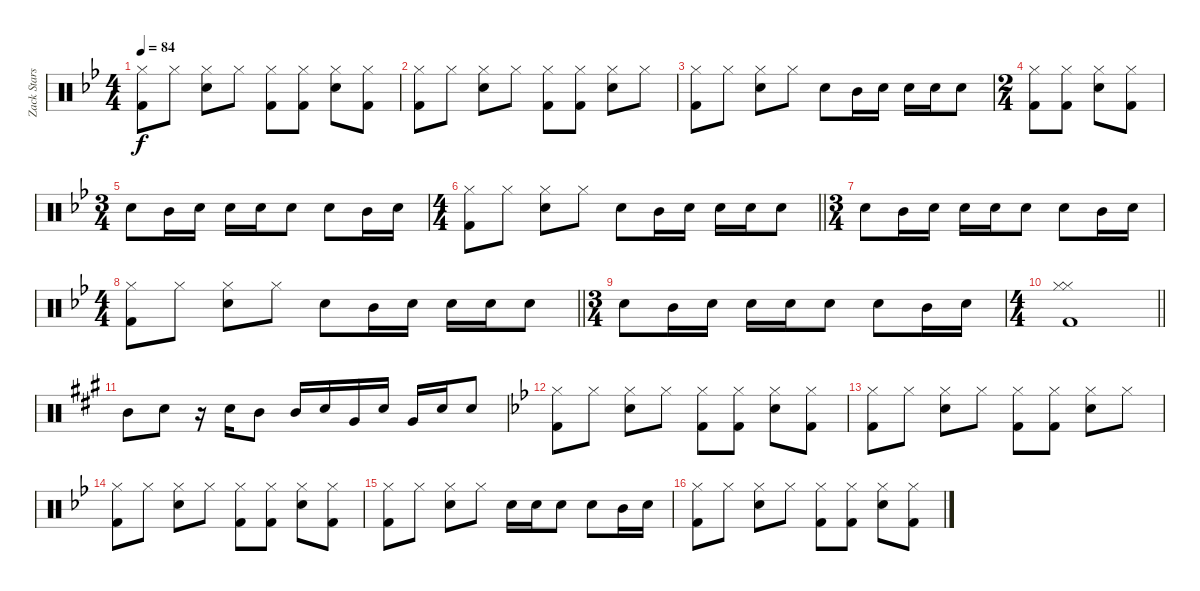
\track ("Zack Starskey" "Zack Stars") {instrument percussion}
\staff {score}
\articulation defaults
\ts (4 4)
\tempo 84
\clef neutral
\ks bb
("Hi-Hat (closed)" "Kick (hit) 2").8{dy f} "Hi-Hat (closed)".8 ("Hi-Hat (closed)" "Snare (hit) 2").8 "Hi-Hat (closed)".8 ("Hi-Hat (closed)" "Kick (hit) 2").8 ("Hi-Hat (closed)" "Kick (hit) 2").8 ("Hi-Hat (closed)" "Snare (hit) 2").8 ("Hi-Hat (closed)" "Kick (hit) 2").8 |
("Hi-Hat (closed)" "Kick (hit) 2").8 "Hi-Hat (closed)".8 ("Hi-Hat (closed)" "Snare (hit) 2").8 "Hi-Hat (closed)".8 ("Hi-Hat (closed)" "Kick (hit) 2").8 ("Hi-Hat (closed)" "Kick (hit) 2").8 ("Hi-Hat (closed)" "Snare (hit) 2").8 "Hi-Hat (closed)".8 |
("Hi-Hat (closed)" "Kick (hit) 2").8 "Hi-Hat (closed)".8 ("Hi-Hat (closed)" "Snare (hit) 2").8 "Hi-Hat (closed)".8 "Snare (hit) 2".8 "Mid Tom (hit)".16 "Snare (hit) 2".16 "Snare (hit) 2".16 "Snare (hit) 2".16 "Snare (hit) 2".8 |
\ts (2 4)
("Hi-Hat (closed)" "Kick (hit) 2").8 ("Hi-Hat (closed)" "Kick (hit) 2").8 ("Hi-Hat (closed)" "Snare (hit) 2").8 ("Hi-Hat (closed)" "Kick (hit) 2").8 |
\ts (3 4)
"Snare (hit) 2".8 "Mid Tom (hit)".16 "Snare (hit) 2".16 "Snare (hit) 2".16 "Snare (hit) 2".16 "Snare (hit) 2".8 "Snare (hit) 2".8 "Mid Tom (hit)".16 "Snare (hit) 2".16 |
\ts (4 4)
\barLineRight lightlight
("Hi-Hat (closed)" "Kick (hit) 2").8 "Hi-Hat (closed)".8 ("Hi-Hat (closed)" "Snare (hit) 2").8 "Hi-Hat (closed)".8 "Snare (hit) 2".8 "Mid Tom (hit)".16 "Snare (hit) 2".16 "Snare (hit) 2".16 "Snare (hit) 2".16 "Snare (hit) 2".8 |
\ts (3 4)
"Snare (hit) 2".8 "Mid Tom (hit)".16 "Snare (hit) 2".16 "Snare (hit) 2".16 "Snare (hit) 2".16 "Snare (hit) 2".8 "Snare (hit) 2".8 "Mid Tom (hit)".16 "Snare (hit) 2".16 |
\ts (4 4)
\barLineRight lightlight
("Hi-Hat (closed)" "Kick (hit) 2").8 "Hi-Hat (closed)".8 ("Hi-Hat (closed)" "Snare (hit) 2").8 "Hi-Hat (closed)".8 "Snare (hit) 2".8 "Mid Tom (hit)".16 "Snare (hit) 2".16 "Snare (hit) 2".16 "Snare (hit) 2".16 "Snare (hit) 2".8 |
\ts (3 4)
"Snare (hit) 2".8 "Mid Tom (hit)".16 "Snare (hit) 2".16 "Snare (hit) 2".16 "Snare (hit) 2".16 "Snare (hit) 2".8 "Snare (hit) 2".8 "Mid Tom (hit)".16 "Snare (hit) 2".16 |
\ts (4 4)
\barLineRight lightlight
("Hi-Hat (closed)" "Hi-Hat (closed)" "Kick (hit) 2").1 |
\ks a "Mid Tom (hit)".8 "Snare (hit) 2".8
r.16 "Snare (hit) 2".16 "Mid Tom (hit)".8 "Mid Tom (hit)".16 "Snare (hit) 2".16 "Very Low Tom (hit)".16 "Snare (hit) 2".16 "Very Low Tom (hit)".16 "Snare (hit) 2".16 "Snare (hit) 2".8 |
\ks bb
("Hi-Hat (closed)" "Kick (hit) 2").8 "Hi-Hat (closed)".8 ("Hi-Hat (closed)" "Snare (hit) 2").8 "Hi-Hat (closed)".8 ("Hi-Hat (closed)" "Kick (hit) 2").8 ("Hi-Hat (closed)" "Kick (hit) 2").8 ("Hi-Hat (closed)" "Snare (hit) 2").8 ("Hi-Hat (closed)" "Kick (hit) 2").8 |
("Hi-Hat (closed)" "Kick (hit) 2").8 "Hi-Hat (closed)".8 ("Hi-Hat (closed)" "Snare (hit) 2").8 "Hi-Hat (closed)".8 ("Hi-Hat (closed)" "Kick (hit) 2").8 ("Hi-Hat (closed)" "Kick (hit) 2").8 ("Hi-Hat (closed)" "Snare (hit) 2").8 "Hi-Hat (closed)".8 |
("Hi-Hat (closed)" "Kick (hit) 2").8 "Hi-Hat (closed)".8 ("Hi-Hat (closed)" "Snare (hit) 2").8 "Hi-Hat (closed)".8 ("Hi-Hat (closed)" "Kick (hit) 2").8 ("Hi-Hat (closed)" "Kick (hit) 2").8 ("Hi-Hat (closed)" "Snare (hit) 2").8 ("Hi-Hat (closed)" "Kick (hit) 2").8 |
("Hi-Hat (closed)" "Kick (hit) 2").8 "Hi-Hat (closed)".8 ("Hi-Hat (closed)" "Snare (hit) 2").8 "Hi-Hat (closed)".8 "Snare (hit) 2".16 "Snare (hit) 2".16 "Snare (hit) 2".8 "Snare (hit) 2".8 "Mid Tom (hit)".16 "Snare (hit) 2".16 |
("Hi-Hat (closed)" "Kick (hit) 2").8 "Hi-Hat (closed)".8 ("Hi-Hat (closed)" "Snare (hit) 2").8 "Hi-Hat (closed)".8 ("Hi-Hat (closed)" "Kick (hit) 2").8 ("Hi-Hat (closed)" "Kick (hit) 2").8 ("Hi-Hat (closed)" "Snare (hit) 2").8 ("Hi-Hat (closed)" "Kick (hit) 2").8
